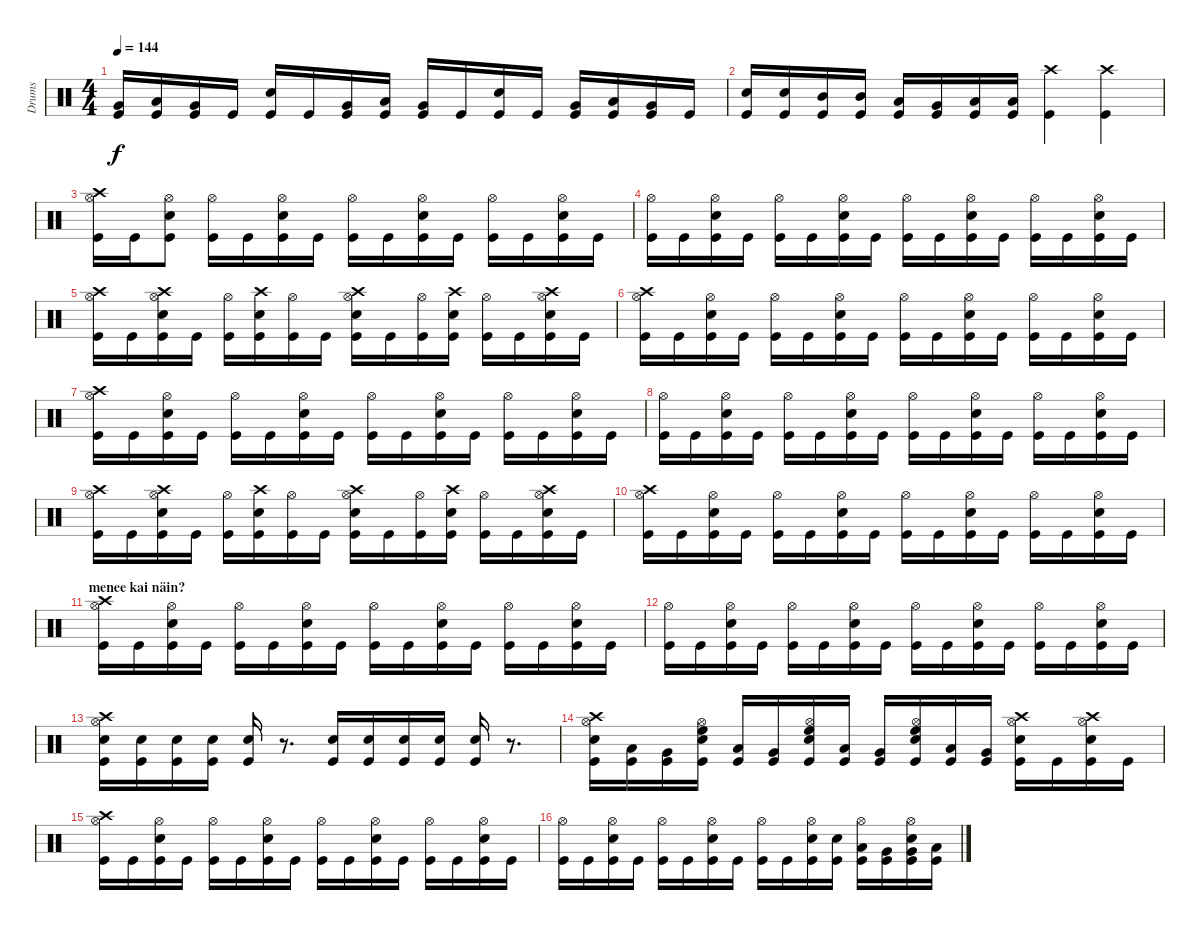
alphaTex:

\track ("Drums" "Drums") {instrument percussion}
\staff {score}
\articulation defaults
\ts (4 4)
\tempo 144
\clef neutral
\ks c
("Very Low Tom (hit)" "Kick (hit)").16{dy f} ("Low Floor Tom (hit)" "Kick (hit)").16 ("Very Low Tom (hit)" "Kick (hit)").16 "Kick (hit)".16 ("Electric Snare (hit)" "Kick (hit)").16 "Kick (hit)".16 ("Very Low Tom (hit)" "Kick (hit)").16 ("Low Floor Tom (hit)" "Kick (hit)").16 ("Very Low Tom (hit)" "Kick (hit)").16 "Kick (hit)".16 ("Electric Snare (hit)" "Kick (hit)").16 "Kick (hit)".16 ("Very Low Tom (hit)" "Kick (hit)").16 ("Low Floor Tom (hit)" "Kick (hit)").16 ("Very Low Tom (hit)" "Kick (hit)").16 "Kick (hit)".16 |
("Electric Snare (hit)" "Kick (hit)").16 ("Electric Snare (hit)" "Kick (hit)").16 ("Mid Tom (hit)" "Kick (hit)").16 ("Mid Tom (hit)" "Kick (hit)").16 ("Low Tom (hit)" "Kick (hit)").16 ("Very Low Tom (hit)" "Kick (hit)").16 ("Low Floor Tom (hit)" "Kick (hit)").16 ("Low Floor Tom (hit)" "Kick (hit)").16 ("Crash high (hit)" "Kick (hit)").4 ("Crash high (hit)" "Kick (hit)").4 |
("Hi-Hat (open)" "Crash high (hit)" "Kick (hit)").16 "Kick (hit)".16 ("Kick (hit)" "Hi-Hat (open)" "Electric Snare (hit)").8 ("Kick (hit)" "Hi-Hat (open)").16 "Kick (hit)".16 ("Kick (hit)" "Hi-Hat (open)" "Electric Snare (hit)").16 "Kick (hit)".16 ("Hi-Hat (open)" "Kick (hit)").16 "Kick (hit)".16 ("Kick (hit)" "Hi-Hat (open)" "Electric Snare (hit)").16 "Kick (hit)".16 ("Kick (hit)" "Hi-Hat (open)").16 "Kick (hit)".16 ("Kick (hit)" "Hi-Hat (open)" "Electric Snare (hit)").16 "Kick (hit)".16 |
("Hi-Hat (open)" "Kick (hit)").16 "Kick (hit)".16 ("Kick (hit)" "Hi-Hat (open)" "Electric Snare (hit)").16 "Kick (hit)".16 ("Kick (hit)" "Hi-Hat (open)").16 "Kick (hit)".16 ("Kick (hit)" "Hi-Hat (open)" "Electric Snare (hit)").16 "Kick (hit)".16 ("Hi-Hat (open)" "Kick (hit)").16 "Kick (hit)".16 ("Kick (hit)" "Hi-Hat (open)" "Electric Snare (hit)").16 "Kick (hit)".16 ("Kick (hit)" "Hi-Hat (open)").16 "Kick (hit)".16 ("Kick (hit)" "Hi-Hat (open)" "Electric Snare (hit)").16 "Kick (hit)".16 |
("Crash high (hit)" "Hi-Hat (open)" "Kick (hit)").16 "Kick (hit)".16 ("Crash high (hit)" "Kick (hit)" "Hi-Hat (open)" "Electric Snare (hit)").16 "Kick (hit)".16 ("Kick (hit)" "Hi-Hat (open)").16 ("Crash high (hit)" "Electric Snare (hit)" "Kick (hit)").16 ("Kick (hit)" "Hi-Hat (open)").16 "Kick (hit)".16 ("Crash high (hit)" "Electric Snare (hit)" "Hi-Hat (open)" "Kick (hit)").16 "Kick (hit)".16 ("Kick (hit)" "Hi-Hat (open)").16 ("Crash high (hit)" "Electric Snare (hit)" "Kick (hit)").16 ("Kick (hit)" "Hi-Hat (open)").16 "Kick (hit)".16 ("Crash high (hit)" "Electric Snare (hit)" "Kick (hit)" "Hi-Hat (open)").16 "Kick (hit)".16 |
("Crash high (hit)" "Hi-Hat (open)" "Kick (hit)").16 "Kick (hit)".16 ("Kick (hit)" "Hi-Hat (open)" "Electric Snare (hit)").16 "Kick (hit)".16 ("Kick (hit)" "Hi-Hat (open)").16 "Kick (hit)".16 ("Kick (hit)" "Hi-Hat (open)" "Electric Snare (hit)").16 "Kick (hit)".16 ("Hi-Hat (open)" "Kick (hit)").16 "Kick (hit)".16 ("Kick (hit)" "Hi-Hat (open)" "Electric Snare (hit)").16 "Kick (hit)".16 ("Kick (hit)" "Hi-Hat (open)").16 "Kick (hit)".16 ("Kick (hit)" "Hi-Hat (open)" "Electric Snare (hit)").16 "Kick (hit)".16 |
("Hi-Hat (open)" "Crash high (hit)" "Kick (hit)").16 "Kick (hit)".16 ("Kick (hit)" "Hi-Hat (open)" "Electric Snare (hit)").16 "Kick (hit)".16 ("Kick (hit)" "Hi-Hat (open)").16 "Kick (hit)".16 ("Kick (hit)" "Hi-Hat (open)" "Electric Snare (hit)").16 "Kick (hit)".16 ("Hi-Hat (open)" "Kick (hit)").16 "Kick (hit)".16 ("Kick (hit)" "Hi-Hat (open)" "Electric Snare (hit)").16 "Kick (hit)".16 ("Kick (hit)" "Hi-Hat (open)").16 "Kick (hit)".16 ("Kick (hit)" "Hi-Hat (open)" "Electric Snare (hit)").16 "Kick (hit)".16 |
("Hi-Hat (open)" "Kick (hit)").16 "Kick (hit)".16 ("Kick (hit)" "Hi-Hat (open)" "Electric Snare (hit)").16 "Kick (hit)".16 ("Kick (hit)" "Hi-Hat (open)").16 "Kick (hit)".16 ("Kick (hit)" "Hi-Hat (open)" "Electric Snare (hit)").16 "Kick (hit)".16 ("Hi-Hat (open)" "Kick (hit)").16 "Kick (hit)".16 ("Kick (hit)" "Hi-Hat (open)" "Electric Snare (hit)").16 "Kick (hit)".16 ("Kick (hit)" "Hi-Hat (open)").16 "Kick (hit)".16 ("Kick (hit)" "Hi-Hat (open)" "Electric Snare (hit)").16 "Kick (hit)".16 |
("Crash high (hit)" "Hi-Hat (open)" "Kick (hit)").16 "Kick (hit)".16 ("Crash high (hit)" "Kick (hit)" "Hi-Hat (open)" "Electric Snare (hit)").16 "Kick (hit)".16 ("Kick (hit)" "Hi-Hat (open)").16 ("Crash high (hit)" "Electric Snare (hit)" "Kick (hit)").16 ("Kick (hit)" "Hi-Hat (open)").16 "Kick (hit)".16 ("Crash high (hit)" "Electric Snare (hit)" "Hi-Hat (open)" "Kick (hit)").16 "Kick (hit)".16 ("Kick (hit)" "Hi-Hat (open)").16 ("Crash high (hit)" "Electric Snare (hit)" "Kick (hit)").16 ("Kick (hit)" "Hi-Hat (open)").16 "Kick (hit)".16 ("Crash high (hit)" "Electric Snare (hit)" "Kick (hit)" "Hi-Hat (open)").16 "Kick (hit)".16 |
("Crash high (hit)" "Hi-Hat (open)" "Kick (hit)").16 "Kick (hit)".16 ("Kick (hit)" "Hi-Hat (open)" "Electric Snare (hit)").16 "Kick (hit)".16 ("Kick (hit)" "Hi-Hat (open)").16 "Kick (hit)".16 ("Kick (hit)" "Hi-Hat (open)" "Electric Snare (hit)").16 "Kick (hit)".16 ("Hi-Hat (open)" "Kick (hit)").16 "Kick (hit)".16 ("Kick (hit)" "Hi-Hat (open)" "Electric Snare (hit)").16 "Kick (hit)".16 ("Kick (hit)" "Hi-Hat (open)").16 "Kick (hit)".16 ("Kick (hit)" "Hi-Hat (open)" "Electric Snare (hit)").16 "Kick (hit)".16 |
\section ("" "menee kai näin?")
("Hi-Hat (open)" "Crash high (hit)" "Kick (hit)").16 "Kick (hit)".16 ("Kick (hit)" "Hi-Hat (open)" "Electric Snare (hit)").16 "Kick (hit)".16 ("Kick (hit)" "Hi-Hat (open)").16 "Kick (hit)".16 ("Kick (hit)" "Hi-Hat (open)" "Electric Snare (hit)").16 "Kick (hit)".16 ("Hi-Hat (open)" "Kick (hit)").16 "Kick (hit)".16 ("Kick (hit)" "Hi-Hat (open)" "Electric Snare (hit)").16 "Kick (hit)".16 ("Kick (hit)" "Hi-Hat (open)").16 "Kick (hit)".16 ("Kick (hit)" "Hi-Hat (open)" "Electric Snare (hit)").16 "Kick (hit)".16 |
("Hi-Hat (open)" "Kick (hit)").16 "Kick (hit)".16 ("Kick (hit)" "Hi-Hat (open)" "Electric Snare (hit)").16 "Kick (hit)".16 ("Kick (hit)" "Hi-Hat (open)").16 "Kick (hit)".16 ("Kick (hit)" "Hi-Hat (open)" "Electric Snare (hit)").16 "Kick (hit)".16 ("Hi-Hat (open)" "Kick (hit)").16 "Kick (hit)".16 ("Kick (hit)" "Hi-Hat (open)" "Electric Snare (hit)").16 "Kick (hit)".16 ("Kick (hit)" "Hi-Hat (open)").16 "Kick (hit)".16 ("Kick (hit)" "Hi-Hat (open)" "Electric Snare (hit)").16 "Kick (hit)".16 |
("Electric Snare (hit)" "Hi-Hat (open)" "Crash high (hit)" "Kick (hit)").16 ("Electric Snare (hit)" "Kick (hit)").16 ("Snare (hit) 2" "Kick (hit)").16 ("Electric Snare (hit)" "Kick (hit)").16 ("Electric Snare (hit)" "Kick (hit)").16 r.8{d} ("Electric Snare (hit)" "Kick (hit)").16 ("Electric Snare (hit)" "Kick (hit)").16 ("Snare (hit) 2" "Kick (hit)").16 ("Electric Snare (hit)" "Kick (hit)").16 ("Electric Snare (hit)" "Kick (hit)").16 r.8{d} |
("Crash high (hit)" "Hi-Hat (open)" "Electric Snare (hit)" "Kick (hit)").16 ("Low Tom (hit)" "Kick (hit)").16 ("Very Low Tom (hit)" "Kick (hit)").16 ("High Floor Tom (hit)" "Hi-Hat (open)" "Electric Snare (hit)" "Kick (hit)").16 ("Low Tom (hit)" "Kick (hit)").16 ("Very Low Tom (hit)" "Kick (hit)").16 ("High Floor Tom (hit)" "Hi-Hat (open)" "Electric Snare (hit)" "Kick (hit)").16 ("Low Tom (hit)" "Kick (hit)").16 ("Very Low Tom (hit)" "Kick (hit)").16 ("High Floor Tom (hit)" "Hi-Hat (open)" "Electric Snare (hit)" "Kick (hit)").16 ("Low Tom (hit)" "Kick (hit)").16 ("Very Low Tom (hit)" "Kick (hit)").16 ("Crash high (hit)" "Hi-Hat (open)" "Electric Snare (hit)" "Kick (hit)").16 "Kick (hit)".16 ("Crash high (hit)" "Hi-Hat (open)" "Electric Snare (hit)" "Kick (hit)").16 "Kick (hit)".16 |
("Hi-Hat (open)" "Crash high (hit)" "Kick (hit)").16 "Kick (hit)".16 ("Kick (hit)" "Hi-Hat (open)" "Electric Snare (hit)").16 "Kick (hit)".16 ("Kick (hit)" "Hi-Hat (open)").16 "Kick (hit)".16 ("Kick (hit)" "Hi-Hat (open)" "Electric Snare (hit)").16 "Kick (hit)".16 ("Hi-Hat (open)" "Kick (hit)").16 "Kick (hit)".16 ("Kick (hit)" "Hi-Hat (open)" "Electric Snare (hit)").16 "Kick (hit)".16 ("Kick (hit)" "Hi-Hat (open)").16 "Kick (hit)".16 ("Kick (hit)" "Hi-Hat (open)" "Electric Snare (hit)").16 "Kick (hit)".16 |
("Hi-Hat (open)" "Kick (hit)").16 "Kick (hit)".16 ("Kick (hit)" "Hi-Hat (open)" "Electric Snare (hit)").16 "Kick (hit)".16 ("Kick (hit)" "Hi-Hat (open)").16 "Kick (hit)".16 ("Kick (hit)" "Hi-Hat (open)" "Electric Snare (hit)").16 "Kick (hit)".16 ("Hi-Hat (open)" "Kick (hit)").16 "Kick (hit)".16 ("Kick (hit)" "Hi-Hat (open)" "Electric Snare (hit)").16 ("Electric Snare (hit)" "Kick (hit)").16 ("Low Tom (hit)" "Kick (hit)" "Hi-Hat (open)").16 ("Very Low Tom (hit)" "Kick (hit)").16 ("Very Low Tom (hit)" "Kick (hit)" "Hi-Hat (open)" "Electric Snare (hit)").16 ("Low Floor Tom (hit)" "Kick (hit)").16
